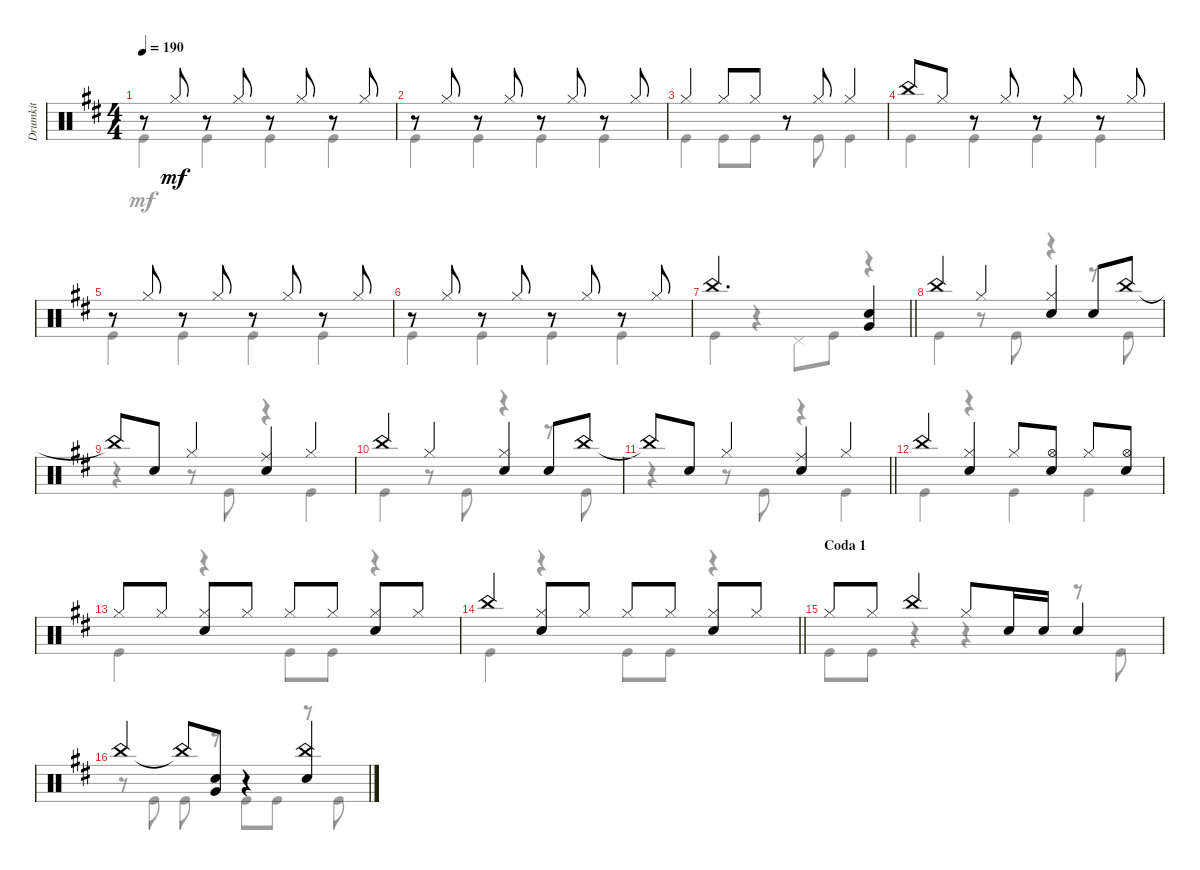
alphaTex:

\track ("Drumkit" "Drumkit") {instrument percussion}
\staff {score}
\articulation defaults
\voice
\ts (4 4)
\tempo 190
\clef neutral
\ks d
r.8{dy mf} "Hi-Hat (closed)".8 r.8 "Hi-Hat (closed)".8 r.8 "Hi-Hat (closed)".8 r.8 "Hi-Hat (closed)".8 |
r.8 "Hi-Hat (closed)".8 r.8 "Hi-Hat (closed)".8 r.8 "Hi-Hat (closed)".8 r.8 "Hi-Hat (closed)".8 |
"Hi-Hat (closed)".4 "Hi-Hat (closed)".8 "Hi-Hat (closed)".8 r.8 "Hi-Hat (closed)".8 "Hi-Hat (closed)".4 |
"China (hit)".8 "Hi-Hat (closed)".8 r.8 "Hi-Hat (closed)".8 r.8 "Hi-Hat (closed)".8 r.8 "Hi-Hat (closed)".8 |
r.8 "Hi-Hat (closed)".8 r.8 "Hi-Hat (closed)".8 r.8 "Hi-Hat (closed)".8 r.8 "Hi-Hat (closed)".8 |
r.8 "Hi-Hat (closed)".8 r.8 "Hi-Hat (closed)".8 r.8 "Hi-Hat (closed)".8 r.8 "Hi-Hat (closed)".8 |
\barLineRight lightlight "China (hit)".2{d}
("Snare (hit) 2" "Very Low Tom (hit)").4 |
\section ("" "")
"China (hit)".4 "Hi-Hat (closed)".4 ("Hi-Hat (closed)" "Snare (hit) 2").4 "Snare (hit) 2".8 "China (hit)".8 |
"China (hit)"{t}.8 "Snare (hit) 2".8 "Hi-Hat (closed)".4 ("Ride (middle)" "Snare (hit) 2").4 "Hi-Hat (closed)".4 |
"China (hit)".4 "Hi-Hat (closed)".4 ("Hi-Hat (closed)" "Snare (hit) 2").4 "Snare (hit) 2".8 "China (hit)".8 |
\barLineRight lightlight "China (hit)"{t}.8 "Snare (hit) 2".8 "Hi-Hat (closed)".4
("Ride (middle)" "Snare (hit) 2").4 "Hi-Hat (closed)".4 |
\section ("" "")
"China (hit)".4 ("Hi-Hat (closed)" "Snare (hit) 2").4 "Hi-Hat (closed)".8 ("Hi-Hat (open)" "Snare (hit) 2").8 "Hi-Hat (closed)".8 ("Hi-Hat (open)" "Snare (hit) 2").8 |
"Hi-Hat (closed)".8 "Hi-Hat (closed)".8 ("Hi-Hat (closed)" "Snare (hit) 2").8 "Hi-Hat (closed)".8 "Hi-Hat (closed)".8 "Hi-Hat (closed)".8 ("Hi-Hat (closed)" "Snare (hit) 2").8 "Hi-Hat (closed)".8 |
\barLineRight lightlight "China (hit)".4
("Hi-Hat (closed)" "Snare (hit) 2").8 "Hi-Hat (closed)".8 "Hi-Hat (closed)".8 "Hi-Hat (closed)".8 ("Hi-Hat (closed)" "Snare (hit) 2").8 "Hi-Hat (closed)".8 |
\section ("" "Coda 1")
"Hi-Hat (closed)".8 "Hi-Hat (closed)".8 "China (hit)".4 "Hi-Hat (closed)".8 "Snare (hit) 2".16 "Snare (hit) 2".16 "Snare (hit) 2".4 |
"China (hit)".4 "China (hit)"{t}.8 ("Snare (hit) 2" "Very Low Tom (hit)").8 r.4 ("Snare (hit) 2" "China (hit)").4
\voice
\clef neutral
\ottava regular
\simile none
\ks d "Kick (hit)".4{dy mf} "Kick (hit)".4 "Kick (hit)".4 "Kick (hit)".4
|
"Kick (hit)".4 "Kick (hit)".4 "Kick (hit)".4 "Kick (hit)".4 |
"Kick (hit)".4 "Kick (hit)".8 "Kick (hit)".8 r.8 "Kick (hit)".8 "Kick (hit)".4 |
"Kick (hit)".4 "Kick (hit)".4 "Kick (hit)".4 "Kick (hit)".4 |
"Kick (hit)".4 "Kick (hit)".4 "Kick (hit)".4 "Kick (hit)".4 |
"Kick (hit)".4 "Kick (hit)".4 "Kick (hit)".4 "Kick (hit)".4 |
\barLineRight lightlight "Kick (hit)".4
r.4 "Pedal Hi-Hat (hit)".8 "Kick (hit)".8 r.4 |
"Kick (hit)".4 r.8 "Kick (hit)".8 r.4 r.8 "Kick (hit)".8 |
r.4 r.8 "Kick (hit)".8 r.4 "Kick (hit)".4 |
"Kick (hit)".4 r.8 "Kick (hit)".8 r.4 r.8 "Kick (hit)".8 |
\barLineRight lightlight
r.4 r.8 "Kick (hit)".8 r.4 "Kick (hit)".4 |
"Kick (hit)".4 r.4 "Kick (hit)".4 "Kick (hit)".4 |
"Kick (hit)".4 r.4 "Kick (hit)".8 "Kick (hit)".8 r.4 |
\barLineRight lightlight "Kick (hit)".4
r.4 "Kick (hit)".8 "Kick (hit)".8 r.4 |
"Kick (hit)".8 "Kick (hit)".8 r.4 r.4 r.8 "Kick (hit)".8 |
r.8 "Kick (hit)".8 "Kick (hit)".8 r.8 "Kick (hit)".8 "Kick (hit)".8 r.8 "Kick (hit)".8
